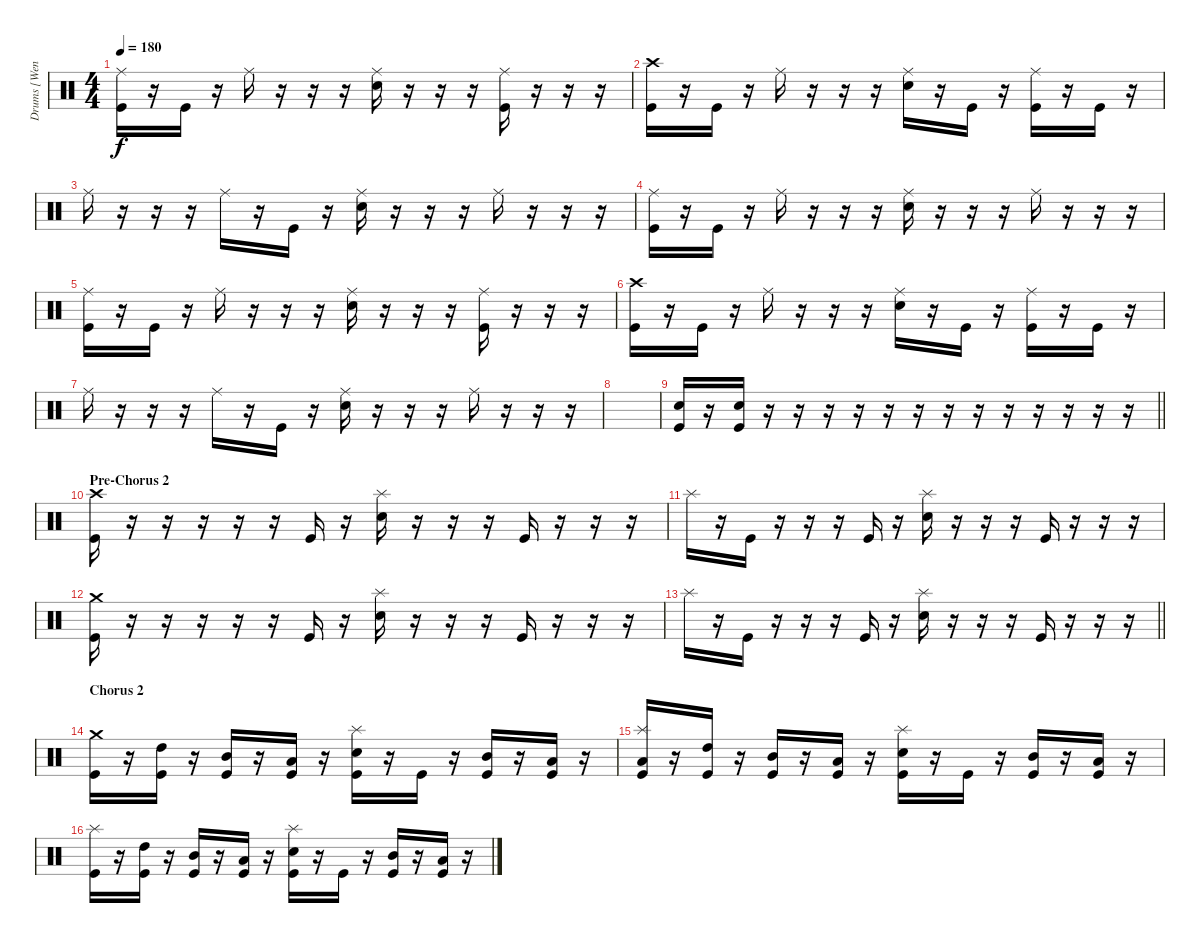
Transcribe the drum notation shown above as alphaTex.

\track ("Drums [Wengren]" "Drums [Wen") {instrument percussion}
\staff {score}
\articulation defaults
\ts (4 4)
\tempo 180
\clef neutral
\ks c
("Ride (middle)" "Kick (hit)").16{dy f} r.16 "Kick (hit)".16 r.16 "Ride (middle)".16 r.16 r.16 r.16 ("Ride (middle)" "Electric Snare (hit)").16 r.16 r.16 r.16 ("Ride (middle)" "Kick (hit)").16 r.16 r.16 r.16 |
("Crash high (hit)" "Kick (hit)").16 r.16 "Kick (hit)".16 r.16 "Ride (middle)".16 r.16 r.16 r.16 ("Ride (middle)" "Electric Snare (hit)").16 r.16 "Kick (hit)".16 r.16 ("Ride (middle)" "Kick (hit)").16 r.16 "Kick (hit)".16 r.16 |
"Ride (middle)".16 r.16 r.16 r.16 "Ride (middle)".16 r.16 "Kick (hit)".16 r.16 ("Ride (middle)" "Electric Snare (hit)").16 r.16 r.16 r.16 "Ride (middle)".16 r.16 r.16 r.16 |
("Ride (middle)" "Kick (hit)").16 r.16 "Kick (hit)".16 r.16 "Ride (middle)".16 r.16 r.16 r.16 ("Ride (middle)" "Electric Snare (hit)").16 r.16 r.16 r.16 "Ride (middle)".16 r.16 r.16 r.16 |
("Ride (middle)" "Kick (hit)").16 r.16 "Kick (hit)".16 r.16 "Ride (middle)".16 r.16 r.16 r.16 ("Ride (middle)" "Electric Snare (hit)").16 r.16 r.16 r.16 ("Ride (middle)" "Kick (hit)").16 r.16 r.16 r.16 |
("Crash high (hit)" "Kick (hit)").16 r.16 "Kick (hit)".16 r.16 "Ride (middle)".16 r.16 r.16 r.16 ("Ride (middle)" "Electric Snare (hit)").16 r.16 "Kick (hit)".16 r.16 ("Ride (middle)" "Kick (hit)").16 r.16 "Kick (hit)".16 r.16 |
"Ride (middle)".16 r.16 r.16 r.16 "Ride (middle)".16 r.16 "Kick (hit)".16 r.16 ("Ride (middle)" "Electric Snare (hit)").16 r.16 r.16 r.16 "Ride (middle)".16 r.16 r.16 r.16 |
|
\barLineRight lightlight
("Electric Snare (hit)" "Kick (hit)").16 r.16 ("Electric Snare (hit)" "Kick (hit)").16 r.16 r.16 r.16 r.16 r.16 r.16 r.16 r.16 r.16 r.16 r.16 r.16 r.16 |
\section ("" "Pre-Chorus 2")
("Crash high (hit)" "Kick (hit)").16 r.16 r.16 r.16 r.16 r.16 "Kick (hit)".16 r.16 ("Splash (hit)" "Electric Snare (hit)").16 r.16 r.16 r.16 "Kick (hit)".16 r.16 r.16 r.16 |
"Splash (hit)".16 r.16 "Kick (hit)".16 r.16 r.16 r.16 "Kick (hit)".16 r.16 ("Splash (hit)" "Electric Snare (hit)").16 r.16 r.16 r.16 "Kick (hit)".16 r.16 r.16 r.16 |
("Crash medium (hit)" "Kick (hit)").16 r.16 r.16 r.16 r.16 r.16 "Kick (hit)".16 r.16 ("Splash (hit)" "Electric Snare (hit)").16 r.16 r.16 r.16 "Kick (hit)".16 r.16 r.16 r.16 |
\barLineRight lightlight "Splash (hit)".16
r.16 "Kick (hit)".16 r.16 r.16 r.16 "Kick (hit)".16 r.16 ("Splash (hit)" "Electric Snare (hit)").16 r.16 r.16 r.16 "Kick (hit)".16 r.16 r.16 r.16 |
\section ("" "Chorus 2")
("Crash medium (hit)" "Kick (hit)").16 r.16 ("High Tom (hit)" "Kick (hit)").16 r.16 ("Mid Tom (hit)" "Kick (hit)").16 r.16 ("Low Tom (hit)" "Kick (hit)").16 r.16 ("Splash (hit)" "Electric Snare (hit)" "Kick (hit)").16 r.16 "Kick (hit)".16 r.16 ("Mid Tom (hit)" "Kick (hit)").16 r.16 ("Low Tom (hit)" "Kick (hit)").16 r.16 |
("Splash (hit)" "Low Floor Tom (hit)" "Kick (hit)").16 r.16 ("High Tom (hit)" "Kick (hit)").16 r.16 ("Mid Tom (hit)" "Kick (hit)").16 r.16 ("Low Tom (hit)" "Kick (hit)").16 r.16 ("Splash (hit)" "Electric Snare (hit)" "Kick (hit)").16 r.16 "Kick (hit)".16 r.16 ("Mid Tom (hit)" "Kick (hit)").16 r.16 ("Low Tom (hit)" "Kick (hit)").16 r.16 |
("Splash (hit)" "Kick (hit)").16 r.16 ("High Tom (hit)" "Kick (hit)").16 r.16 ("Mid Tom (hit)" "Kick (hit)").16 r.16 ("Low Tom (hit)" "Kick (hit)").16 r.16 ("Splash (hit)" "Electric Snare (hit)" "Kick (hit)").16 r.16 "Kick (hit)".16 r.16 ("Mid Tom (hit)" "Kick (hit)").16 r.16 ("Low Tom (hit)" "Kick (hit)").16 r.16
